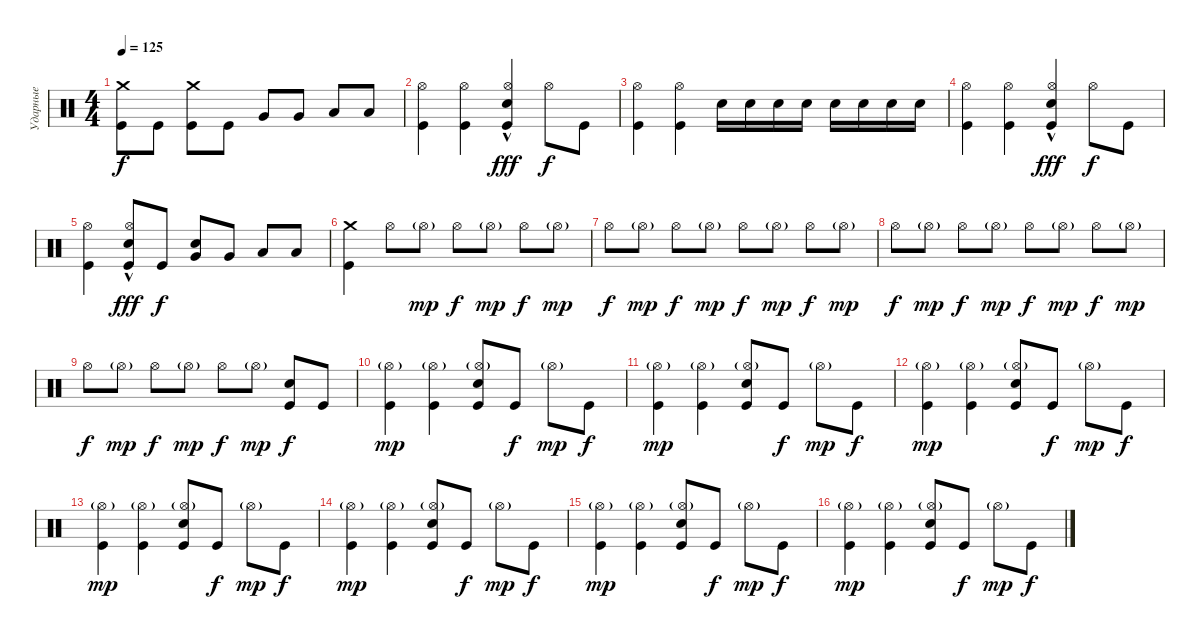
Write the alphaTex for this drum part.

\track ("Ударные" "Ударные") {instrument percussion}
\staff {score}
\articulation defaults
\ts (4 4)
\tempo 125
\clef neutral
\ks c
("Kick (hit)" "Crash medium (hit)").8{dy f} "Kick (hit)".8 ("Kick (hit)" "Crash medium (hit)").8 "Kick (hit)".8 "Very Low Tom (hit)".8 "Very Low Tom (hit)".8 "Low Floor Tom (hit)".8 "Low Floor Tom (hit)".8 |
("Hi-Hat (open)" "Kick (hit)").4 ("Hi-Hat (open)" "Kick (hit)").4 ("Electric Snare (hit)"{hac} "Hi-Hat (open)" "Kick (hit)").4{dy fff} "Hi-Hat (open)".8{dy f} "Kick (hit)".8 |
("Hi-Hat (open)" "Kick (hit)").4 ("Hi-Hat (open)" "Kick (hit)").4 "Electric Snare (hit)".16 "Electric Snare (hit)".16 "Electric Snare (hit)".16 "Electric Snare (hit)".16 "Electric Snare (hit)".16 "Electric Snare (hit)".16 "Electric Snare (hit)".16 "Electric Snare (hit)".16 |
("Hi-Hat (open)" "Kick (hit)").4 ("Hi-Hat (open)" "Kick (hit)").4 ("Electric Snare (hit)"{hac} "Hi-Hat (open)" "Kick (hit)").4{dy fff} "Hi-Hat (open)".8{dy f} "Kick (hit)".8 |
("Hi-Hat (open)" "Kick (hit)").4 ("Electric Snare (hit)"{hac} "Hi-Hat (open)" "Kick (hit)").8{dy fff} "Kick (hit)".8{dy f} ("Electric Snare (hit)" "Very Low Tom (hit)").8 "Very Low Tom (hit)".8 "Low Floor Tom (hit)".8 "Low Floor Tom (hit)".8 |
("Crash medium (hit)" "Kick (hit)").4 "Hi-Hat (open)".8{volume 2} "Hi-Hat (open)"{g}.8{dy mp volume 7} "Hi-Hat (open)".8{dy f} "Hi-Hat (open)"{g}.8{dy mp} "Hi-Hat (open)".8{dy f} "Hi-Hat (open)"{g}.8{dy mp} |
"Hi-Hat (open)".8{dy f} "Hi-Hat (open)"{g}.8{dy mp} "Hi-Hat (open)".8{dy f} "Hi-Hat (open)"{g}.8{dy mp} "Hi-Hat (open)".8{dy f} "Hi-Hat (open)"{g}.8{dy mp} "Hi-Hat (open)".8{dy f} "Hi-Hat (open)"{g}.8{dy mp} |
"Hi-Hat (open)".8{dy f} "Hi-Hat (open)"{g}.8{dy mp} "Hi-Hat (open)".8{dy f} "Hi-Hat (open)"{g}.8{dy mp} "Hi-Hat (open)".8{dy f} "Hi-Hat (open)"{g}.8{dy mp} "Hi-Hat (open)".8{dy f} "Hi-Hat (open)"{g}.8{dy mp} |
"Hi-Hat (open)".8{dy f} "Hi-Hat (open)"{g}.8{dy mp} "Hi-Hat (open)".8{dy f} "Hi-Hat (open)"{g}.8{dy mp} "Hi-Hat (open)".8{dy f} "Hi-Hat (open)"{g}.8{dy mp} ("Electric Snare (hit)" "Kick (hit)").8{dy f} "Kick (hit)".8 |
("Hi-Hat (open)"{g} "Kick (hit)").4{dy mp volume 16} ("Hi-Hat (open)"{g} "Kick (hit)").4 ("Electric Snare (hit)" "Hi-Hat (open)"{g} "Kick (hit)").8 "Kick (hit)".8{dy f} "Hi-Hat (open)"{g}.8{dy mp} "Kick (hit)".8{dy f} |
("Hi-Hat (open)"{g} "Kick (hit)").4{dy mp} ("Hi-Hat (open)"{g} "Kick (hit)").4 ("Electric Snare (hit)" "Hi-Hat (open)"{g} "Kick (hit)").8 "Kick (hit)".8{dy f} "Hi-Hat (open)"{g}.8{dy mp} "Kick (hit)".8{dy f} |
("Hi-Hat (open)"{g} "Kick (hit)").4{dy mp} ("Hi-Hat (open)"{g} "Kick (hit)").4 ("Electric Snare (hit)" "Hi-Hat (open)"{g} "Kick (hit)").8 "Kick (hit)".8{dy f} "Hi-Hat (open)"{g}.8{dy mp} "Kick (hit)".8{dy f} |
("Hi-Hat (open)"{g} "Kick (hit)").4{dy mp} ("Hi-Hat (open)"{g} "Kick (hit)").4 ("Electric Snare (hit)" "Hi-Hat (open)"{g} "Kick (hit)").8 "Kick (hit)".8{dy f} "Hi-Hat (open)"{g}.8{dy mp} "Kick (hit)".8{dy f} |
("Hi-Hat (open)"{g} "Kick (hit)").4{dy mp} ("Hi-Hat (open)"{g} "Kick (hit)").4 ("Electric Snare (hit)" "Hi-Hat (open)"{g} "Kick (hit)").8 "Kick (hit)".8{dy f} "Hi-Hat (open)"{g}.8{dy mp} "Kick (hit)".8{dy f} |
("Hi-Hat (open)"{g} "Kick (hit)").4{dy mp} ("Hi-Hat (open)"{g} "Kick (hit)").4 ("Electric Snare (hit)" "Hi-Hat (open)"{g} "Kick (hit)").8 "Kick (hit)".8{dy f} "Hi-Hat (open)"{g}.8{dy mp} "Kick (hit)".8{dy f} |
("Hi-Hat (open)"{g} "Kick (hit)").4{dy mp} ("Hi-Hat (open)"{g} "Kick (hit)").4 ("Electric Snare (hit)" "Hi-Hat (open)"{g} "Kick (hit)").8 "Kick (hit)".8{dy f} "Hi-Hat (open)"{g}.8{dy mp} "Kick (hit)".8{dy f}
